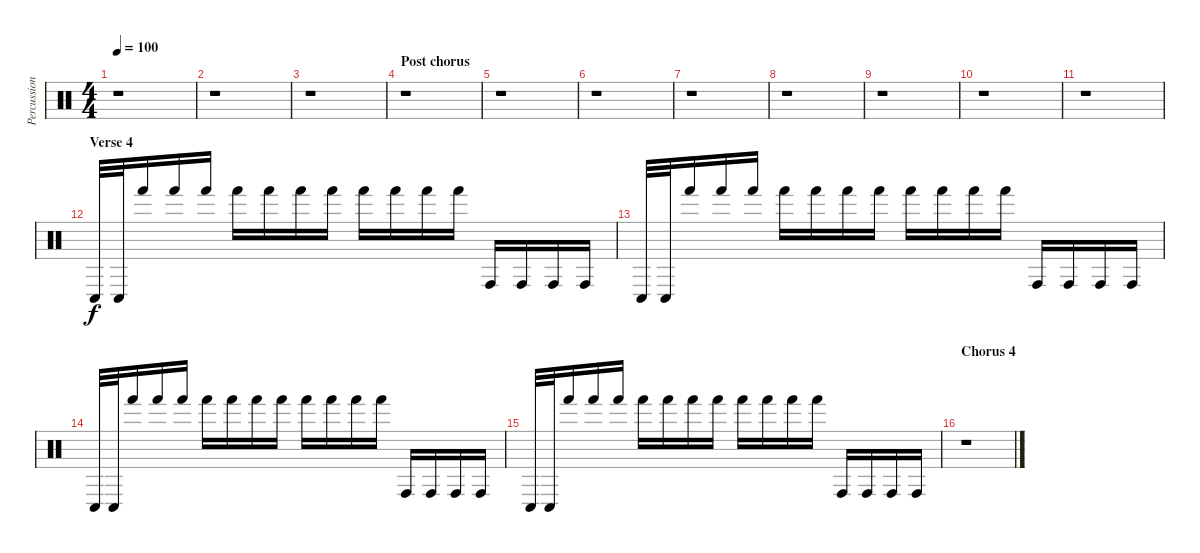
\track ("Percussions additionnelles" "Percussion") {instrument percussion}
\staff {score}
\articulation defaults
\ts (4 4)
\tempo 100
\clef neutral
\ks c
r.1{dy f} |
r.1 |
r.1 |
\section ("" "Post chorus")
r.1 |
r.1 |
r.1 |
r.1 |
r.1 |
r.1 |
r.1 |
r.1 |
\section ("" "Verse 4")
"Conga low (hit)".32 "Conga low (hit)".32 "Hand (hit)".16 "Hand (hit)".16 "Hand (hit)".16 "Hand (hit)".16 "Hand (hit)".16 "Hand (hit)".16 "Hand (hit)".16 "Hand (hit)".16 "Hand (hit)".16 "Hand (hit)".16 "Hand (hit)".16 "Conga high (hit)".16 "Conga high (hit)".16 "Conga high (hit)".16 "Conga high (hit)".16 |
"Conga low (hit)".32 "Conga low (hit)".32 "Hand (hit)".16 "Hand (hit)".16 "Hand (hit)".16 "Hand (hit)".16 "Hand (hit)".16 "Hand (hit)".16 "Hand (hit)".16 "Hand (hit)".16 "Hand (hit)".16 "Hand (hit)".16 "Hand (hit)".16 "Conga high (hit)".16 "Conga high (hit)".16 "Conga high (hit)".16 "Conga high (hit)".16 |
"Conga low (hit)".32 "Conga low (hit)".32 "Hand (hit)".16 "Hand (hit)".16 "Hand (hit)".16 "Hand (hit)".16 "Hand (hit)".16 "Hand (hit)".16 "Hand (hit)".16 "Hand (hit)".16 "Hand (hit)".16 "Hand (hit)".16 "Hand (hit)".16 "Conga high (hit)".16 "Conga high (hit)".16 "Conga high (hit)".16 "Conga high (hit)".16 |
"Conga low (hit)".32 "Conga low (hit)".32 "Hand (hit)".16 "Hand (hit)".16 "Hand (hit)".16 "Hand (hit)".16 "Hand (hit)".16 "Hand (hit)".16 "Hand (hit)".16 "Hand (hit)".16 "Hand (hit)".16 "Hand (hit)".16 "Hand (hit)".16 "Conga high (hit)".16 "Conga high (hit)".16 "Conga high (hit)".16 "Conga high (hit)".16 |
\section ("" "Chorus 4")
r.1
